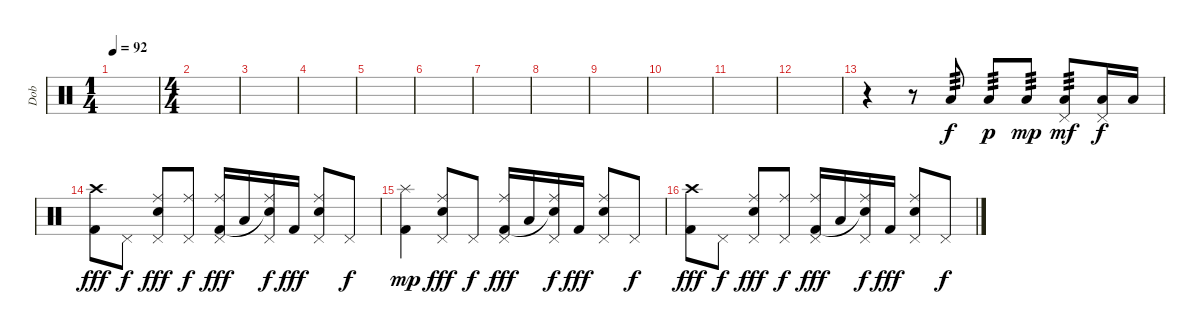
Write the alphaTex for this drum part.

\track ("Dob" "Dob") {instrument percussion}
\staff {score}
\articulation defaults
\ts (1 4)
\tempo 92
\clef neutral
\ks c
|
\ts (4 4)
|
|
|
|
|
|
|
|
|
|
|
r.4 r.8 "Low Tom (hit)".8{tp 3} "Low Tom (hit)".8{tp 3 dy p} "Low Tom (hit)".8{tp 3 dy mp} ("Low Tom (hit)" "Pedal Hi-Hat (hit)").8{tp 3 dy mf} ("Low Tom (hit)" "Pedal Hi-Hat (hit)").16{dy f} "Low Tom (hit)".16 |
("Kick (hit) 2" "Crash high (hit)").8{dy fff} "Pedal Hi-Hat (hit)".8{dy f} ("Electric Snare (hit)" "Ride (middle)" "Pedal Hi-Hat (hit)").8{dy fff} ("Ride (middle)" "Pedal Hi-Hat (hit)").8{dy f} ("Ride (middle)" "Kick (hit) 2" "Pedal Hi-Hat (hit)").16{dy fff} "Low Tom (hit)".16 ("Ride (middle)" "Snare (hit)"{t} "Pedal Hi-Hat (hit)").16{dy f} "Kick (hit) 2".16{dy fff} ("Electric Snare (hit)" "Ride (middle)" "Pedal Hi-Hat (hit)").8 "Pedal Hi-Hat (hit)".8{dy f} |
("Kick (hit) 2" "Splash (hit)").4{dy mp} ("Electric Snare (hit)" "Ride (middle)" "Pedal Hi-Hat (hit)").8{dy fff} "Pedal Hi-Hat (hit)".8{dy f} ("Ride (middle)" "Kick (hit) 2" "Pedal Hi-Hat (hit)").16{dy fff} "Low Tom (hit)".16 ("Ride (middle)" "Snare (hit)"{t} "Pedal Hi-Hat (hit)").16{dy f} "Kick (hit) 2".16{dy fff} ("Electric Snare (hit)" "Ride (middle)" "Pedal Hi-Hat (hit)").8 "Pedal Hi-Hat (hit)".8{dy f} |
("Kick (hit) 2" "Crash high (hit)").8{dy fff} "Pedal Hi-Hat (hit)".8{dy f} ("Electric Snare (hit)" "Ride (middle)" "Pedal Hi-Hat (hit)").8{dy fff} ("Ride (middle)" "Pedal Hi-Hat (hit)").8{dy f} ("Ride (middle)" "Kick (hit) 2" "Pedal Hi-Hat (hit)").16{dy fff} "Low Tom (hit)".16 ("Ride (middle)" "Snare (hit)"{t} "Pedal Hi-Hat (hit)").16{dy f} "Kick (hit) 2".16{dy fff} ("Electric Snare (hit)" "Ride (middle)" "Pedal Hi-Hat (hit)").8 "Pedal Hi-Hat (hit)".8{dy f}
